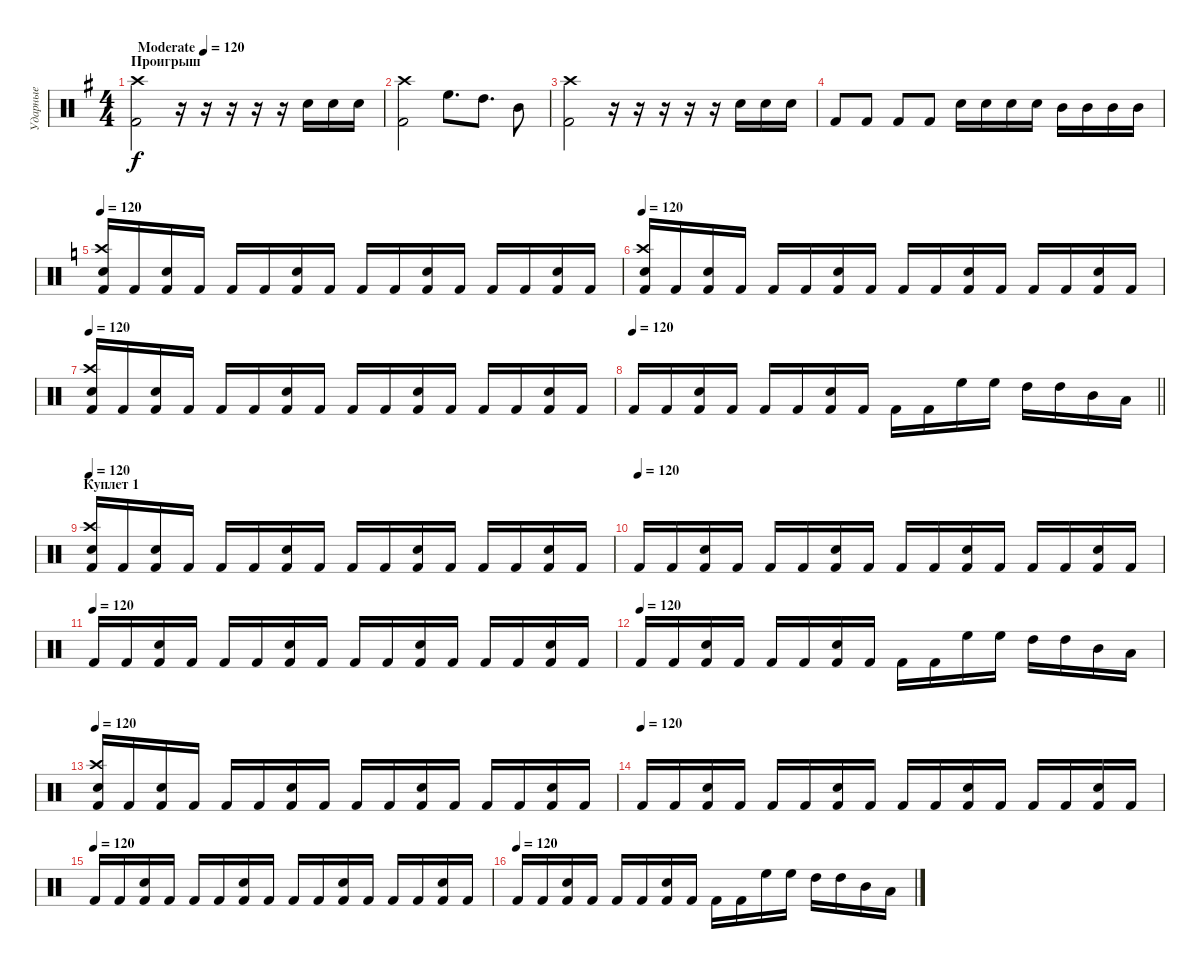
\track ("Ударные" "Ударные") {solo instrument percussion}
\staff {score}
\articulation defaults
\ts (4 4)
\section ("" "Проигрыш")
\tempo (120 "Moderate")
\clef neutral
\ks g
("Kick (hit) 2" "Crash high (hit)").2{dy f} r.16 r.16 r.16 r.16 r.16 "Electric Snare (hit)".16 "Electric Snare (hit)".16 "Electric Snare (hit)".16 |
("Kick (hit) 2" "Crash high (hit)").2 "High Floor Tom (hit)".8{d} "High Tom (hit)".8{d} "Mid Tom (hit)".8 |
("Kick (hit) 2" "Crash high (hit)").2 r.16 r.16 r.16 r.16 r.16 "Electric Snare (hit)".16 "Electric Snare (hit)".16 "Electric Snare (hit)".16 |
"Kick (hit) 2".8 "Kick (hit) 2".8 "Kick (hit) 2".8 "Kick (hit) 2".8 "Electric Snare (hit)".16 "Electric Snare (hit)".16 "Electric Snare (hit)".16 "Electric Snare (hit)".16 "Mid Tom (hit)".16 "Mid Tom (hit)".16 "Mid Tom (hit)".16 "Mid Tom (hit)".16 |
\tempo 120
\ks c
("Crash high (hit)" "Electric Snare (hit)" "Kick (hit) 2").16 "Kick (hit) 2".16 ("Electric Snare (hit)" "Kick (hit) 2").16 "Kick (hit) 2".16 "Kick (hit) 2".16 "Kick (hit) 2".16 ("Electric Snare (hit)" "Kick (hit) 2").16 "Kick (hit) 2".16 "Kick (hit) 2".16 "Kick (hit) 2".16 ("Electric Snare (hit)" "Kick (hit) 2").16 "Kick (hit) 2".16 "Kick (hit) 2".16 "Kick (hit) 2".16 ("Electric Snare (hit)" "Kick (hit) 2").16 "Kick (hit) 2".16 |
\tempo 120
("Crash high (hit)" "Electric Snare (hit)" "Kick (hit) 2").16 "Kick (hit) 2".16 ("Electric Snare (hit)" "Kick (hit) 2").16 "Kick (hit) 2".16 "Kick (hit) 2".16 "Kick (hit) 2".16 ("Electric Snare (hit)" "Kick (hit) 2").16 "Kick (hit) 2".16 "Kick (hit) 2".16 "Kick (hit) 2".16 ("Electric Snare (hit)" "Kick (hit) 2").16 "Kick (hit) 2".16 "Kick (hit) 2".16 "Kick (hit) 2".16 ("Electric Snare (hit)" "Kick (hit) 2").16 "Kick (hit) 2".16 |
\tempo 120
("Crash high (hit)" "Electric Snare (hit)" "Kick (hit) 2").16 "Kick (hit) 2".16 ("Electric Snare (hit)" "Kick (hit) 2").16 "Kick (hit) 2".16 "Kick (hit) 2".16 "Kick (hit) 2".16 ("Electric Snare (hit)" "Kick (hit) 2").16 "Kick (hit) 2".16 "Kick (hit) 2".16 "Kick (hit) 2".16 ("Electric Snare (hit)" "Kick (hit) 2").16 "Kick (hit) 2".16 "Kick (hit) 2".16 "Kick (hit) 2".16 ("Electric Snare (hit)" "Kick (hit) 2").16 "Kick (hit) 2".16 |
\tempo 120
\barLineRight lightlight "Kick (hit) 2".16 "Kick (hit) 2".16
("Electric Snare (hit)" "Kick (hit) 2").16 "Kick (hit) 2".16 "Kick (hit) 2".16 "Kick (hit) 2".16 ("Electric Snare (hit)" "Kick (hit) 2").16 "Kick (hit) 2".16 "Kick (hit) 2".16 "Kick (hit) 2".16 "High Floor Tom (hit)".16 "High Floor Tom (hit)".16 "High Tom (hit)".16 "High Tom (hit)".16 "Mid Tom (hit)".16 "Low Tom (hit)".16 |
\section ("" "Куплет 1")
\tempo 120
("Crash high (hit)" "Electric Snare (hit)" "Kick (hit) 2").16 "Kick (hit) 2".16 ("Electric Snare (hit)" "Kick (hit) 2").16 "Kick (hit) 2".16 "Kick (hit) 2".16 "Kick (hit) 2".16 ("Electric Snare (hit)" "Kick (hit) 2").16 "Kick (hit) 2".16 "Kick (hit) 2".16 "Kick (hit) 2".16 ("Electric Snare (hit)" "Kick (hit) 2").16 "Kick (hit) 2".16 "Kick (hit) 2".16 "Kick (hit) 2".16 ("Electric Snare (hit)" "Kick (hit) 2").16 "Kick (hit) 2".16 |
\tempo (120)
"Kick (hit) 2".16 "Kick (hit) 2".16 ("Electric Snare (hit)" "Kick (hit) 2").16 "Kick (hit) 2".16 "Kick (hit) 2".16 "Kick (hit) 2".16 ("Electric Snare (hit)" "Kick (hit) 2").16 "Kick (hit) 2".16 "Kick (hit) 2".16 "Kick (hit) 2".16 ("Electric Snare (hit)" "Kick (hit) 2").16 "Kick (hit) 2".16 "Kick (hit) 2".16 "Kick (hit) 2".16 ("Electric Snare (hit)" "Kick (hit) 2").16 "Kick (hit) 2".16 |
\tempo (120)
"Kick (hit) 2".16 "Kick (hit) 2".16 ("Electric Snare (hit)" "Kick (hit) 2").16 "Kick (hit) 2".16 "Kick (hit) 2".16 "Kick (hit) 2".16 ("Electric Snare (hit)" "Kick (hit) 2").16 "Kick (hit) 2".16 "Kick (hit) 2".16 "Kick (hit) 2".16 ("Electric Snare (hit)" "Kick (hit) 2").16 "Kick (hit) 2".16 "Kick (hit) 2".16 "Kick (hit) 2".16 ("Electric Snare (hit)" "Kick (hit) 2").16 "Kick (hit) 2".16 |
\tempo (120)
"Kick (hit) 2".16 "Kick (hit) 2".16 ("Electric Snare (hit)" "Kick (hit) 2").16 "Kick (hit) 2".16 "Kick (hit) 2".16 "Kick (hit) 2".16 ("Electric Snare (hit)" "Kick (hit) 2").16 "Kick (hit) 2".16 "Kick (hit) 2".16 "Kick (hit) 2".16 "High Floor Tom (hit)".16 "High Floor Tom (hit)".16 "High Tom (hit)".16 "High Tom (hit)".16 "Mid Tom (hit)".16 "Low Tom (hit)".16 |
\tempo 120
("Crash high (hit)" "Electric Snare (hit)" "Kick (hit) 2").16 "Kick (hit) 2".16 ("Electric Snare (hit)" "Kick (hit) 2").16 "Kick (hit) 2".16 "Kick (hit) 2".16 "Kick (hit) 2".16 ("Electric Snare (hit)" "Kick (hit) 2").16 "Kick (hit) 2".16 "Kick (hit) 2".16 "Kick (hit) 2".16 ("Electric Snare (hit)" "Kick (hit) 2").16 "Kick (hit) 2".16 "Kick (hit) 2".16 "Kick (hit) 2".16 ("Electric Snare (hit)" "Kick (hit) 2").16 "Kick (hit) 2".16 |
\tempo (120)
"Kick (hit) 2".16 "Kick (hit) 2".16 ("Electric Snare (hit)" "Kick (hit) 2").16 "Kick (hit) 2".16 "Kick (hit) 2".16 "Kick (hit) 2".16 ("Electric Snare (hit)" "Kick (hit) 2").16 "Kick (hit) 2".16 "Kick (hit) 2".16 "Kick (hit) 2".16 ("Electric Snare (hit)" "Kick (hit) 2").16 "Kick (hit) 2".16 "Kick (hit) 2".16 "Kick (hit) 2".16 ("Electric Snare (hit)" "Kick (hit) 2").16 "Kick (hit) 2".16 |
\tempo (120)
"Kick (hit) 2".16 "Kick (hit) 2".16 ("Electric Snare (hit)" "Kick (hit) 2").16 "Kick (hit) 2".16 "Kick (hit) 2".16 "Kick (hit) 2".16 ("Electric Snare (hit)" "Kick (hit) 2").16 "Kick (hit) 2".16 "Kick (hit) 2".16 "Kick (hit) 2".16 ("Electric Snare (hit)" "Kick (hit) 2").16 "Kick (hit) 2".16 "Kick (hit) 2".16 "Kick (hit) 2".16 ("Electric Snare (hit)" "Kick (hit) 2").16 "Kick (hit) 2".16 |
\tempo (120)
"Kick (hit) 2".16 "Kick (hit) 2".16 ("Electric Snare (hit)" "Kick (hit) 2").16 "Kick (hit) 2".16 "Kick (hit) 2".16 "Kick (hit) 2".16 ("Electric Snare (hit)" "Kick (hit) 2").16 "Kick (hit) 2".16 "Kick (hit) 2".16 "Kick (hit) 2".16 "High Floor Tom (hit)".16 "High Floor Tom (hit)".16 "High Tom (hit)".16 "High Tom (hit)".16 "Mid Tom (hit)".16 "Low Tom (hit)".16
